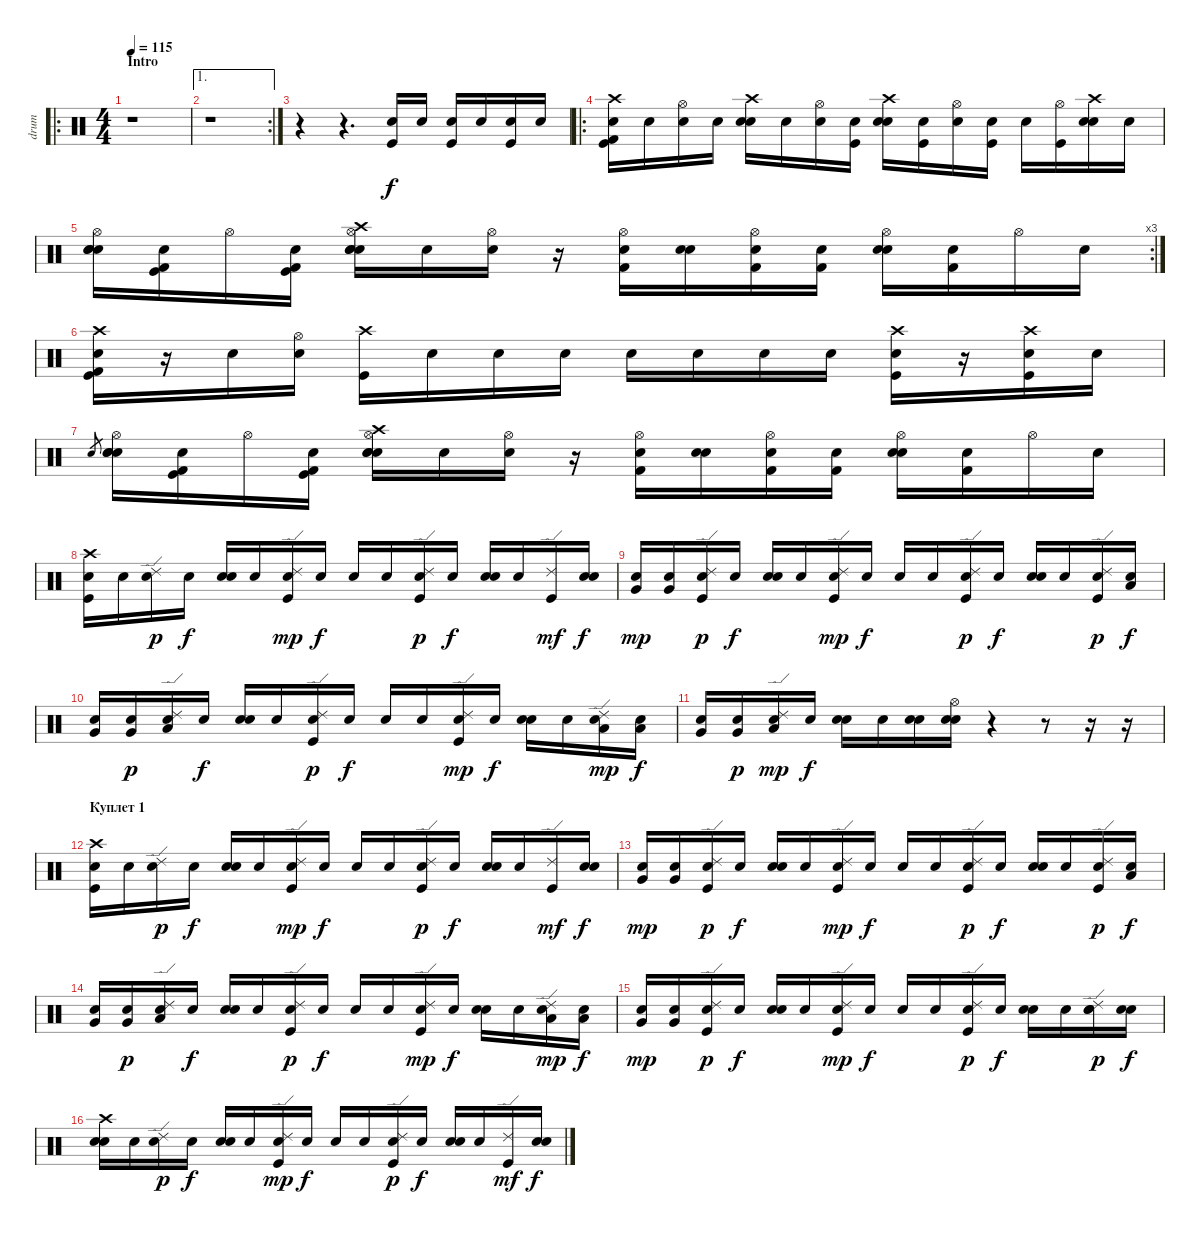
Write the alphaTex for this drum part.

\track ("drum" "drum") {instrument percussion}
\staff {score}
\articulation defaults
\ro
\ts (4 4)
\section ("" "Intro")
\tempo 115
\clef neutral
\ks c
r.1{dy f} |
\ae 1
\rc 2
r.1 |
r.4 r.4{d} ("Kick (hit)" "Electric Snare (hit)").16 "Electric Snare (hit)".16 ("Kick (hit)" "Electric Snare (hit)").16 "Electric Snare (hit)".16 ("Kick (hit)" "Electric Snare (hit)").16 "Electric Snare (hit)".16 |
\ro
("Snare (hit)"{x} "Kick (hit)" "Kick (hit) 2" "Crash high (hit)").16 "Snare (hit)"{x}.16 ("Snare (hit)"{x} "Hi-Hat (open)").16 "Snare (hit)"{x}.16 ("Snare (hit)"{x} "Electric Snare (hit)" "Crash high (hit)").16 "Snare (hit)"{x}.16 ("Snare (hit)"{x} "Hi-Hat (open)").16 ("Snare (hit)"{x} "Kick (hit)").16 ("Snare (hit)"{x} "Crash high (hit)" "Electric Snare (hit)").16 ("Snare (hit)"{x} "Kick (hit)").16 ("Snare (hit)"{x} "Hi-Hat (open)").16 ("Snare (hit)"{x} "Kick (hit)").16 "Snare (hit)"{x}.16 ("Hi-Hat (open)" "Kick (hit)").16 ("Snare (hit)"{x} "Crash high (hit)" "Electric Snare (hit)").16 "Snare (hit)"{x}.16 |
\rc 3
("Snare (hit)"{x} "Hi-Hat (open)" "Snare (hit) 2" "Electric Snare (hit)").16 ("Snare (hit)"{x} "Kick (hit) 2" "Kick (hit)").16 "Hi-Hat (open)".16 ("Snare (hit)"{x} "Kick (hit) 2" "Kick (hit)").16 ("Snare (hit)"{x} "Hi-Hat (open)" "Snare (hit) 2" "Electric Snare (hit)" "Crash high (hit)").16 "Snare (hit)"{x}.16 ("Snare (hit)"{x} "Hi-Hat (open)").16 r.16 ("Snare (hit)"{x} "Hi-Hat (open)" "Kick (hit) 2").16 ("Snare (hit)"{x} "Snare (hit) 2").16 ("Snare (hit)"{x} "Hi-Hat (open)" "Kick (hit) 2").16 ("Snare (hit)"{x} "Kick (hit) 2").16 ("Snare (hit)"{x} "Hi-Hat (open)" "Snare (hit) 2").16 ("Snare (hit)"{x} "Kick (hit) 2").16 "Hi-Hat (open)".16 "Snare (hit)"{x}.16 |
("Snare (hit)"{x} "Kick (hit)" "Kick (hit) 2" "Crash high (hit)").16 r.16 "Snare (hit)"{x}.16 ("Hi-Hat (open)" "Electric Snare (hit)").16 ("Kick (hit)" "Crash high (hit)").16 "Snare (hit)"{x}.16 "Electric Snare (hit)".16 "Electric Snare (hit)".16 "Electric Snare (hit)".16 "Electric Snare (hit)".16 "Electric Snare (hit)".16 "Electric Snare (hit)".16 ("Snare (hit)"{x} "Crash high (hit)" "Kick (hit)").16 r.16 ("Snare (hit)"{x} "Crash high (hit)" "Kick (hit)").16 "Snare (hit)"{x}.16 |
"Electric Snare (hit)".8{gr} ("Snare (hit)"{x} "Hi-Hat (open)" "Snare (hit) 2" "Electric Snare (hit)").16 ("Snare (hit)"{x} "Kick (hit) 2" "Kick (hit)").16 "Hi-Hat (open)".16 ("Snare (hit)"{x} "Kick (hit) 2" "Kick (hit)").16 ("Snare (hit)"{x} "Hi-Hat (open)" "Snare (hit) 2" "Electric Snare (hit)" "Crash high (hit)").16 "Snare (hit)"{x}.16 ("Snare (hit)"{x} "Hi-Hat (open)").16 r.16 ("Snare (hit)"{x} "Hi-Hat (open)" "Kick (hit) 2").16 ("Snare (hit)"{x} "Snare (hit) 2").16 ("Snare (hit)"{x} "Hi-Hat (open)" "Kick (hit) 2").16 ("Snare (hit)"{x} "Kick (hit) 2").16 ("Snare (hit)"{x} "Hi-Hat (open)" "Snare (hit) 2").16 ("Snare (hit)"{x} "Kick (hit) 2").16 "Hi-Hat (open)".16 "Snare (hit)"{x}.16 |
("Snare (hit)"{x} "Crash high (hit)" "Kick (hit)").16 "Snare (hit)"{x}.16 ("Snare (hit)"{x} "Ride (edge) 2").16{dy p} "Snare (hit)"{x}.16{dy f} ("Snare (hit)"{x} "Snare (hit) 2").16 "Snare (hit)"{x}.16 ("Snare (hit)"{x} "Ride (edge) 2" "Kick (hit)").16{dy mp} "Snare (hit)"{x}.16{dy f} "Snare (hit)"{x}.16 "Snare (hit)"{x}.16 ("Snare (hit)"{x} "Ride (edge) 2" "Kick (hit)").16{dy p} "Snare (hit)"{x}.16{dy f} ("Snare (hit)"{x} "Snare (hit) 2").16 "Snare (hit)"{x}.16 ("Ride (edge) 2" "Kick (hit)").16{dy mf} ("Snare (hit)"{x} "Snare (hit) 2").16{dy f} |
("Snare (hit)"{x} "Very Low Tom (hit)").16{dy mp} ("Snare (hit)"{x} "Very Low Tom (hit)").16 ("Snare (hit)"{x} "Ride (edge) 2" "Kick (hit)").16{dy p} "Snare (hit)"{x}.16{dy f} ("Snare (hit)"{x} "Snare (hit) 2").16 "Snare (hit)"{x}.16 ("Snare (hit)"{x} "Ride (edge) 2" "Kick (hit)").16{dy mp} "Snare (hit)"{x}.16{dy f} "Snare (hit)"{x}.16 "Snare (hit)"{x}.16 ("Snare (hit)"{x} "Ride (edge) 2" "Kick (hit)").16{dy p} "Snare (hit)"{x}.16{dy f} ("Snare (hit)"{x} "Snare (hit) 2").16 "Snare (hit)"{x}.16 ("Snare (hit)"{x} "Ride (edge) 2" "Kick (hit)").16{dy p} ("Snare (hit)"{x} "Low Tom (hit)").16{dy f} |
("Snare (hit)"{x} "Very Low Tom (hit)").16 ("Snare (hit)"{x} "Very Low Tom (hit)").16{dy p} ("Snare (hit)"{x} "Ride (edge) 2" "Low Floor Tom (hit)").16 "Snare (hit)"{x}.16{dy f} ("Snare (hit)"{x} "Snare (hit) 2").16 "Snare (hit)"{x}.16 ("Snare (hit)"{x} "Ride (edge) 2" "Kick (hit)").16{dy p} "Snare (hit)"{x}.16{dy f} "Snare (hit)"{x}.16 "Snare (hit)"{x}.16 ("Snare (hit)"{x} "Ride (edge) 2" "Kick (hit)").16{dy mp} "Snare (hit)"{x}.16{dy f} ("Snare (hit)"{x} "Snare (hit) 2").16 "Snare (hit)"{x}.16 ("Snare (hit)"{x} "Ride (edge) 2" "Low Tom (hit)").16{dy mp} ("Snare (hit)"{x} "Low Tom (hit)").16{dy f} |
("Snare (hit)"{x} "Very Low Tom (hit)").16 ("Snare (hit)"{x} "Very Low Tom (hit)").16{dy p} ("Snare (hit)"{x} "Ride (edge) 2" "Low Floor Tom (hit)").16{dy mp} "Snare (hit)"{x}.16{dy f} ("Snare (hit)"{x} "Snare (hit) 2").16 "Snare (hit)"{x}.16 ("Snare (hit)"{x} "Snare (hit) 2").16 ("Snare (hit)"{x} "Hi-Hat (open)" "Snare (hit) 2").16 r.4 r.8 r.16 r.16 |
\section ("" "Куплет 1")
("Snare (hit)"{x} "Crash high (hit)" "Kick (hit)").16 "Snare (hit)"{x}.16 ("Snare (hit)"{x} "Ride (edge) 2").16{dy p} "Snare (hit)"{x}.16{dy f} ("Snare (hit)"{x} "Snare (hit) 2").16 "Snare (hit)"{x}.16 ("Snare (hit)"{x} "Ride (edge) 2" "Kick (hit)").16{dy mp} "Snare (hit)"{x}.16{dy f} "Snare (hit)"{x}.16 "Snare (hit)"{x}.16 ("Snare (hit)"{x} "Ride (edge) 2" "Kick (hit)").16{dy p} "Snare (hit)"{x}.16{dy f} ("Snare (hit)"{x} "Snare (hit) 2").16 "Snare (hit)"{x}.16 ("Ride (edge) 2" "Kick (hit)").16{dy mf} ("Snare (hit)"{x} "Snare (hit) 2").16{dy f} |
("Snare (hit)"{x} "Very Low Tom (hit)").16{dy mp} ("Snare (hit)"{x} "Very Low Tom (hit)").16 ("Snare (hit)"{x} "Ride (edge) 2" "Kick (hit)").16{dy p} "Snare (hit)"{x}.16{dy f} ("Snare (hit)"{x} "Snare (hit) 2").16 "Snare (hit)"{x}.16 ("Snare (hit)"{x} "Ride (edge) 2" "Kick (hit)").16{dy mp} "Snare (hit)"{x}.16{dy f} "Snare (hit)"{x}.16 "Snare (hit)"{x}.16 ("Snare (hit)"{x} "Ride (edge) 2" "Kick (hit)").16{dy p} "Snare (hit)"{x}.16{dy f} ("Snare (hit)"{x} "Snare (hit) 2").16 "Snare (hit)"{x}.16 ("Snare (hit)"{x} "Ride (edge) 2" "Kick (hit)").16{dy p} ("Snare (hit)"{x} "Low Tom (hit)").16{dy f} |
("Snare (hit)"{x} "Very Low Tom (hit)").16 ("Snare (hit)"{x} "Very Low Tom (hit)").16{dy p} ("Snare (hit)"{x} "Ride (edge) 2" "Low Floor Tom (hit)").16 "Snare (hit)"{x}.16{dy f} ("Snare (hit)"{x} "Snare (hit) 2").16 "Snare (hit)"{x}.16 ("Snare (hit)"{x} "Ride (edge) 2" "Kick (hit)").16{dy p} "Snare (hit)"{x}.16{dy f} "Snare (hit)"{x}.16 "Snare (hit)"{x}.16 ("Snare (hit)"{x} "Ride (edge) 2" "Kick (hit)").16{dy mp} "Snare (hit)"{x}.16{dy f} ("Snare (hit)"{x} "Snare (hit) 2").16 "Snare (hit)"{x}.16 ("Snare (hit)"{x} "Ride (edge) 2" "Low Tom (hit)").16{dy mp} ("Snare (hit)"{x} "Low Tom (hit)").16{dy f} |
("Snare (hit)"{x} "Very Low Tom (hit)").16{dy mp} ("Snare (hit)"{x} "Very Low Tom (hit)").16 ("Snare (hit)"{x} "Ride (edge) 2" "Kick (hit)").16{dy p} "Snare (hit)"{x}.16{dy f} ("Snare (hit)"{x} "Snare (hit) 2").16 "Snare (hit)"{x}.16 ("Snare (hit)"{x} "Ride (edge) 2" "Kick (hit)").16{dy mp} "Snare (hit)"{x}.16{dy f} "Snare (hit)"{x}.16 "Snare (hit)"{x}.16 ("Snare (hit)"{x} "Ride (edge) 2" "Kick (hit)").16{dy p} "Snare (hit)"{x}.16{dy f} ("Snare (hit)"{x} "Snare (hit) 2").16 "Snare (hit)"{x}.16 ("Snare (hit)"{x} "Ride (edge) 2" "Snare (hit) 2").16{dy p} ("Snare (hit)"{x} "Snare (hit) 2").16{dy f} |
("Snare (hit)"{x} "Crash high (hit)" "Snare (hit) 2").16 "Snare (hit)"{x}.16 ("Snare (hit)"{x} "Ride (edge) 2").16{dy p} "Snare (hit)"{x}.16{dy f} ("Snare (hit)"{x} "Snare (hit) 2").16 "Snare (hit)"{x}.16 ("Snare (hit)"{x} "Ride (edge) 2" "Kick (hit)").16{dy mp} "Snare (hit)"{x}.16{dy f} "Snare (hit)"{x}.16 "Snare (hit)"{x}.16 ("Snare (hit)"{x} "Ride (edge) 2" "Kick (hit)").16{dy p} "Snare (hit)"{x}.16{dy f} ("Snare (hit)"{x} "Snare (hit) 2").16 "Snare (hit)"{x}.16 ("Ride (edge) 2" "Kick (hit)").16{dy mf} ("Snare (hit)"{x} "Snare (hit) 2").16{dy f}
